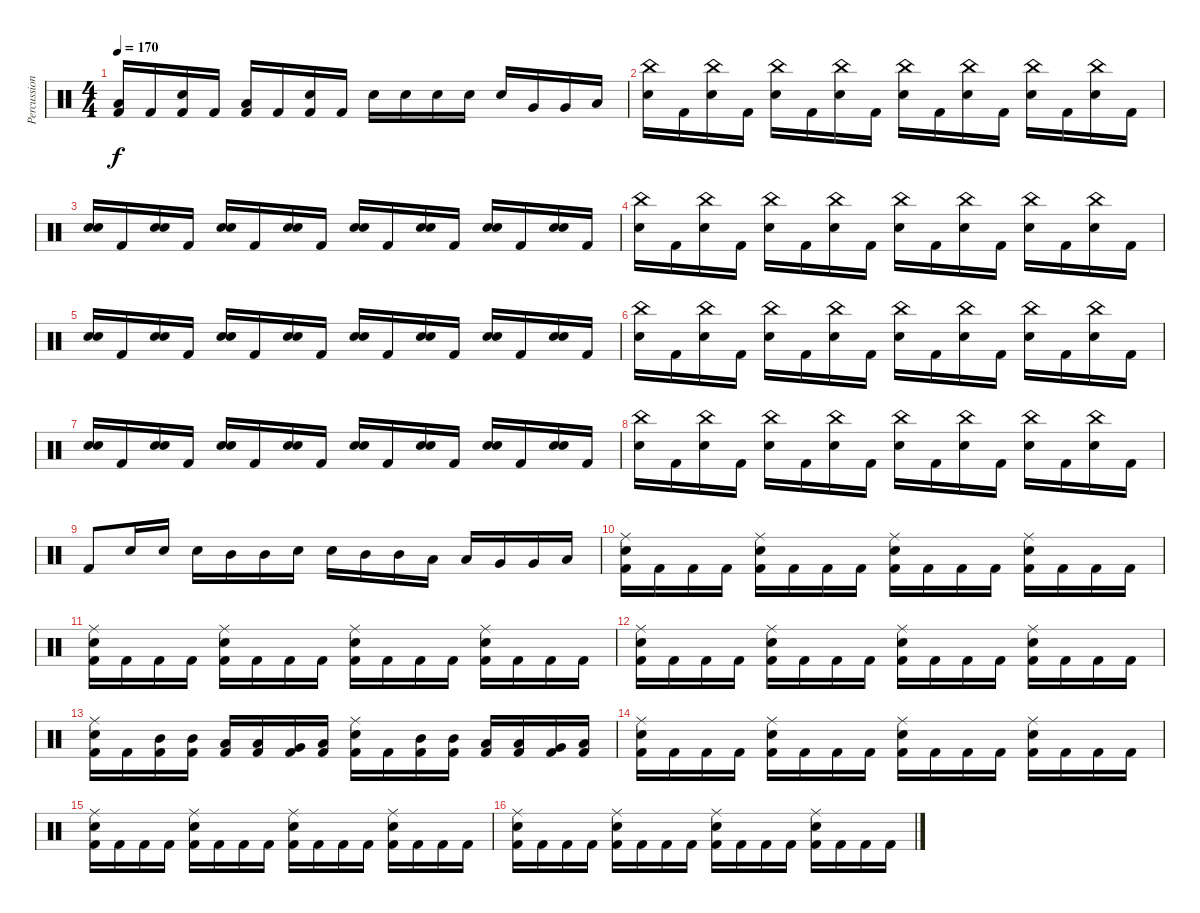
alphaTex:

\track ("Percussion" "Percussion") {instrument percussion}
\staff {score}
\articulation defaults
\ts (4 4)
\tempo 170
\clef neutral
\ks c
("Low Floor Tom (hit)" "Kick (hit) 2").16{dy f} "Kick (hit) 2".16 ("Snare (hit) 2" "Kick (hit) 2").16 "Kick (hit) 2".16 ("Low Floor Tom (hit)" "Kick (hit) 2").16 "Kick (hit) 2".16 ("Snare (hit) 2" "Kick (hit) 2").16 "Kick (hit) 2".16 "Snare (hit) 2".16 "Snare (hit) 2".16 "Snare (hit) 2".16 "Snare (hit) 2".16 "Snare (hit) 2".16 "Very Low Tom (hit)".16 "Very Low Tom (hit)".16 "Low Floor Tom (hit)".16 |
("China (hit)" "Snare (hit) 2").16 "Kick (hit) 2".16 ("China (hit)" "Snare (hit) 2").16 "Kick (hit) 2".16 ("China (hit)" "Snare (hit) 2").16 "Kick (hit) 2".16 ("China (hit)" "Snare (hit) 2").16 "Kick (hit) 2".16 ("China (hit)" "Snare (hit) 2").16 "Kick (hit) 2".16 ("China (hit)" "Snare (hit) 2").16 "Kick (hit) 2".16 ("China (hit)" "Snare (hit) 2").16 "Kick (hit) 2".16 ("China (hit)" "Snare (hit) 2").16 "Kick (hit) 2".16 |
("Snare (hit)" "Snare (hit) 2").16 "Kick (hit) 2".16 ("Snare (hit)" "Snare (hit) 2").16 "Kick (hit) 2".16 ("Snare (hit)" "Snare (hit) 2").16 "Kick (hit) 2".16 ("Snare (hit)" "Snare (hit) 2").16 "Kick (hit) 2".16 ("Snare (hit)" "Snare (hit) 2").16 "Kick (hit) 2".16 ("Snare (hit)" "Snare (hit) 2").16 "Kick (hit) 2".16 ("Snare (hit)" "Snare (hit) 2").16 "Kick (hit) 2".16 ("Snare (hit)" "Snare (hit) 2").16 "Kick (hit) 2".16 |
("China (hit)" "Snare (hit) 2").16 "Kick (hit) 2".16 ("China (hit)" "Snare (hit) 2").16 "Kick (hit) 2".16 ("China (hit)" "Snare (hit) 2").16 "Kick (hit) 2".16 ("China (hit)" "Snare (hit) 2").16 "Kick (hit) 2".16 ("China (hit)" "Snare (hit) 2").16 "Kick (hit) 2".16 ("China (hit)" "Snare (hit) 2").16 "Kick (hit) 2".16 ("China (hit)" "Snare (hit) 2").16 "Kick (hit) 2".16 ("China (hit)" "Snare (hit) 2").16 "Kick (hit) 2".16 |
("Snare (hit)" "Snare (hit) 2").16 "Kick (hit) 2".16 ("Snare (hit)" "Snare (hit) 2").16 "Kick (hit) 2".16 ("Snare (hit)" "Snare (hit) 2").16 "Kick (hit) 2".16 ("Snare (hit)" "Snare (hit) 2").16 "Kick (hit) 2".16 ("Snare (hit)" "Snare (hit) 2").16 "Kick (hit) 2".16 ("Snare (hit)" "Snare (hit) 2").16 "Kick (hit) 2".16 ("Snare (hit)" "Snare (hit) 2").16 "Kick (hit) 2".16 ("Snare (hit)" "Snare (hit) 2").16 "Kick (hit) 2".16 |
("China (hit)" "Snare (hit) 2").16 "Kick (hit) 2".16 ("China (hit)" "Snare (hit) 2").16 "Kick (hit) 2".16 ("China (hit)" "Snare (hit) 2").16 "Kick (hit) 2".16 ("China (hit)" "Snare (hit) 2").16 "Kick (hit) 2".16 ("China (hit)" "Snare (hit) 2").16 "Kick (hit) 2".16 ("China (hit)" "Snare (hit) 2").16 "Kick (hit) 2".16 ("China (hit)" "Snare (hit) 2").16 "Kick (hit) 2".16 ("China (hit)" "Snare (hit) 2").16 "Kick (hit) 2".16 |
("Snare (hit)" "Snare (hit) 2").16 "Kick (hit) 2".16 ("Snare (hit)" "Snare (hit) 2").16 "Kick (hit) 2".16 ("Snare (hit)" "Snare (hit) 2").16 "Kick (hit) 2".16 ("Snare (hit)" "Snare (hit) 2").16 "Kick (hit) 2".16 ("Snare (hit)" "Snare (hit) 2").16 "Kick (hit) 2".16 ("Snare (hit)" "Snare (hit) 2").16 "Kick (hit) 2".16 ("Snare (hit)" "Snare (hit) 2").16 "Kick (hit) 2".16 ("Snare (hit)" "Snare (hit) 2").16 "Kick (hit) 2".16 |
("China (hit)" "Snare (hit) 2").16 "Kick (hit) 2".16 ("China (hit)" "Snare (hit) 2").16 "Kick (hit) 2".16 ("China (hit)" "Snare (hit) 2").16 "Kick (hit) 2".16 ("China (hit)" "Snare (hit) 2").16 "Kick (hit) 2".16 ("China (hit)" "Snare (hit) 2").16 "Kick (hit) 2".16 ("China (hit)" "Snare (hit) 2").16 "Kick (hit) 2".16 ("China (hit)" "Snare (hit) 2").16 "Kick (hit) 2".16 ("China (hit)" "Snare (hit) 2").16 "Kick (hit) 2".16 |
"Kick (hit) 2".8 "Snare (hit) 2".16 "Snare (hit) 2".16 "Snare (hit) 2".16 "Mid Tom (hit)".16 "Mid Tom (hit)".16 "Snare (hit) 2".16 "Snare (hit) 2".16 "Mid Tom (hit)".16 "Mid Tom (hit)".16 "Low Tom (hit)".16 "Low Tom (hit)".16 "Very Low Tom (hit)".16 "Very Low Tom (hit)".16 "Low Floor Tom (hit)".16 |
("Ride (middle)" "Snare (hit) 2" "Kick (hit) 2").16 "Kick (hit) 2".16 "Kick (hit) 2".16 "Kick (hit) 2".16 ("Ride (middle)" "Snare (hit) 2" "Kick (hit) 2").16 "Kick (hit) 2".16 "Kick (hit) 2".16 "Kick (hit) 2".16 ("Ride (middle)" "Snare (hit) 2" "Kick (hit) 2").16 "Kick (hit) 2".16 "Kick (hit) 2".16 "Kick (hit) 2".16 ("Ride (middle)" "Snare (hit) 2" "Kick (hit) 2").16 "Kick (hit) 2".16 "Kick (hit) 2".16 "Kick (hit) 2".16 |
("Ride (middle)" "Snare (hit) 2" "Kick (hit) 2").16 "Kick (hit) 2".16 "Kick (hit) 2".16 "Kick (hit) 2".16 ("Ride (middle)" "Snare (hit) 2" "Kick (hit) 2").16 "Kick (hit) 2".16 "Kick (hit) 2".16 "Kick (hit) 2".16 ("Ride (middle)" "Snare (hit) 2" "Kick (hit) 2").16 "Kick (hit) 2".16 "Kick (hit) 2".16 "Kick (hit) 2".16 ("Ride (middle)" "Snare (hit) 2" "Kick (hit) 2").16 "Kick (hit) 2".16 "Kick (hit) 2".16 "Kick (hit) 2".16 |
("Ride (middle)" "Snare (hit) 2" "Kick (hit) 2").16 "Kick (hit) 2".16 "Kick (hit) 2".16 "Kick (hit) 2".16 ("Ride (middle)" "Snare (hit) 2" "Kick (hit) 2").16 "Kick (hit) 2".16 "Kick (hit) 2".16 "Kick (hit) 2".16 ("Ride (middle)" "Snare (hit) 2" "Kick (hit) 2").16 "Kick (hit) 2".16 "Kick (hit) 2".16 "Kick (hit) 2".16 ("Ride (middle)" "Snare (hit) 2" "Kick (hit) 2").16 "Kick (hit) 2".16 "Kick (hit) 2".16 "Kick (hit) 2".16 |
("Ride (middle)" "Snare (hit) 2" "Kick (hit) 2").16 "Kick (hit) 2".16 ("Mid Tom (hit)" "Kick (hit) 2").16 ("Mid Tom (hit)" "Kick (hit) 2").16 ("Low Tom (hit)" "Kick (hit) 2").16 ("Low Tom (hit)" "Kick (hit) 2").16 ("Very Low Tom (hit)" "Kick (hit) 2").16 ("Low Floor Tom (hit)" "Kick (hit) 2").16 ("Ride (middle)" "Snare (hit) 2" "Kick (hit) 2").16 "Kick (hit) 2".16 ("Mid Tom (hit)" "Kick (hit) 2").16 ("Mid Tom (hit)" "Kick (hit) 2").16 ("Low Tom (hit)" "Kick (hit) 2").16 ("Low Tom (hit)" "Kick (hit) 2").16 ("Very Low Tom (hit)" "Kick (hit) 2").16 ("Low Floor Tom (hit)" "Kick (hit) 2").16 |
("Ride (middle)" "Snare (hit) 2" "Kick (hit) 2").16 "Kick (hit) 2".16 "Kick (hit) 2".16 "Kick (hit) 2".16 ("Ride (middle)" "Snare (hit) 2" "Kick (hit) 2").16 "Kick (hit) 2".16 "Kick (hit) 2".16 "Kick (hit) 2".16 ("Ride (middle)" "Snare (hit) 2" "Kick (hit) 2").16 "Kick (hit) 2".16 "Kick (hit) 2".16 "Kick (hit) 2".16 ("Ride (middle)" "Snare (hit) 2" "Kick (hit) 2").16 "Kick (hit) 2".16 "Kick (hit) 2".16 "Kick (hit) 2".16 |
("Ride (middle)" "Snare (hit) 2" "Kick (hit) 2").16 "Kick (hit) 2".16 "Kick (hit) 2".16 "Kick (hit) 2".16 ("Ride (middle)" "Snare (hit) 2" "Kick (hit) 2").16 "Kick (hit) 2".16 "Kick (hit) 2".16 "Kick (hit) 2".16 ("Ride (middle)" "Snare (hit) 2" "Kick (hit) 2").16 "Kick (hit) 2".16 "Kick (hit) 2".16 "Kick (hit) 2".16 ("Ride (middle)" "Snare (hit) 2" "Kick (hit) 2").16 "Kick (hit) 2".16 "Kick (hit) 2".16 "Kick (hit) 2".16 |
("Ride (middle)" "Snare (hit) 2" "Kick (hit) 2").16 "Kick (hit) 2".16 "Kick (hit) 2".16 "Kick (hit) 2".16 ("Ride (middle)" "Snare (hit) 2" "Kick (hit) 2").16 "Kick (hit) 2".16 "Kick (hit) 2".16 "Kick (hit) 2".16 ("Ride (middle)" "Snare (hit) 2" "Kick (hit) 2").16 "Kick (hit) 2".16 "Kick (hit) 2".16 "Kick (hit) 2".16 ("Ride (middle)" "Snare (hit) 2" "Kick (hit) 2").16 "Kick (hit) 2".16 "Kick (hit) 2".16 "Kick (hit) 2".16
